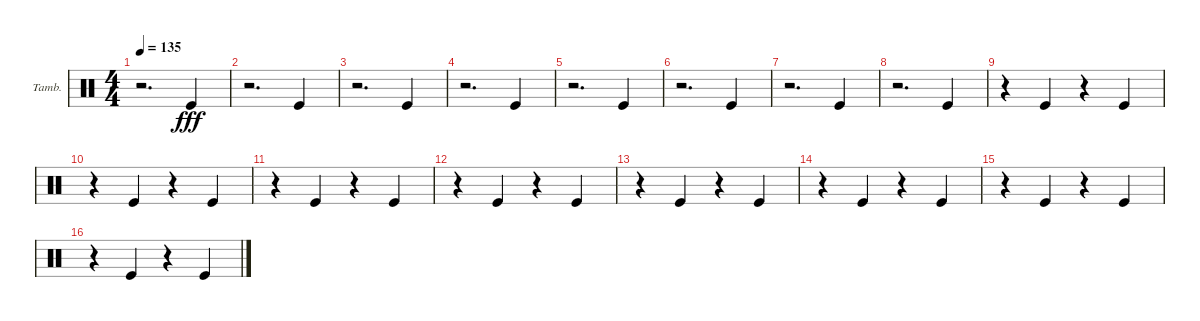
\defaultSystemsLayout 4
\bracketExtendMode groupsimilarinstruments
\firstSystemTrackNameOrientation horizontal
\otherSystemsTrackNameOrientation horizontal
\track ("Tambourine" "Tamb.") {instrument percussion}
\staff {score}
\articulation defaults
\ts (4 4)
\tempo 135
\clef neutral
\scale
0.333333
\ks c
r.2{d dy fff} "Kick (hit)".4 |
\scale
0.333333 r.2{d} "Kick (hit)".4 |
\scale
0.333333 r.2{d} "Kick (hit)".4 |
\scale
0.333333 r.2{d} "Kick (hit)".4 |
\scale
0.333333 r.2{d} "Kick (hit)".4 |
\scale
0.333333 r.2{d} "Kick (hit)".4 |
\scale
0.333333 r.2{d} "Kick (hit)".4 |
\scale
0.333333 r.2{d} "Kick (hit)".4 |
\scale
0.333333 r.4 "Kick (hit)".4 r.4 "Kick (hit)".4 |
\scale
0.333333 r.4 "Kick (hit)".4 r.4 "Kick (hit)".4 |
\scale
0.333333 r.4 "Kick (hit)".4 r.4 "Kick (hit)".4 |
\scale
0.333333 r.4 "Kick (hit)".4 r.4 "Kick (hit)".4 |
\scale
0.333333 r.4 "Kick (hit)".4 r.4 "Kick (hit)".4 |
\scale
0.333333 r.4 "Kick (hit)".4 r.4 "Kick (hit)".4 |
\scale
0.333333 r.4 "Kick (hit)".4 r.4 "Kick (hit)".4 |
\scale
0.333333 r.4 "Kick (hit)".4 r.4 "Kick (hit)".4
